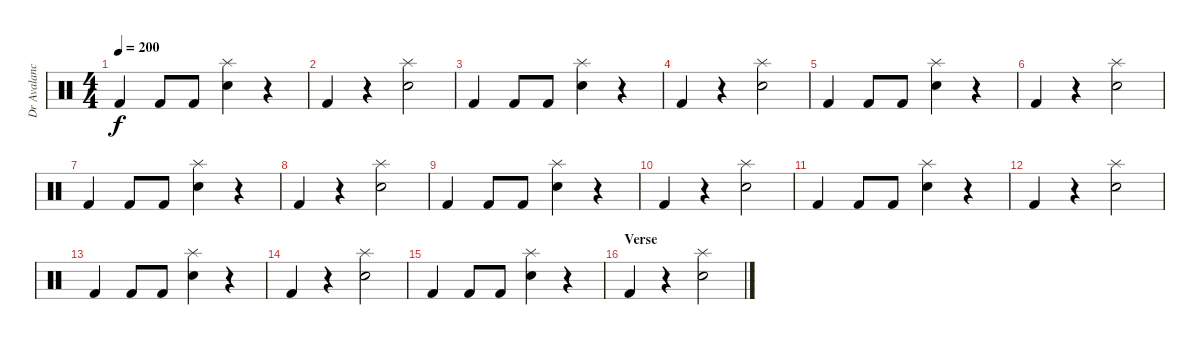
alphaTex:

\track ("Dr Avalanche" "Dr Avalanc") {instrument percussion}
\staff {score}
\articulation defaults
\ts (4 4)
\tempo 200
\clef neutral
\ks c "Kick (hit) 2".4{dy f} "Kick (hit) 2".8 "Kick (hit) 2".8
("Snare (hit) 2" "Splash (hit)").4 r.4 |
"Kick (hit) 2".4 r.4 ("Snare (hit) 2" "Splash (hit)").2 |
"Kick (hit) 2".4 "Kick (hit) 2".8 "Kick (hit) 2".8 ("Snare (hit) 2" "Splash (hit)").4 r.4 |
"Kick (hit) 2".4 r.4 ("Snare (hit) 2" "Splash (hit)").2 |
"Kick (hit) 2".4 "Kick (hit) 2".8 "Kick (hit) 2".8 ("Snare (hit) 2" "Splash (hit)").4 r.4 |
"Kick (hit) 2".4 r.4 ("Snare (hit) 2" "Splash (hit)").2 |
"Kick (hit) 2".4 "Kick (hit) 2".8 "Kick (hit) 2".8 ("Snare (hit) 2" "Splash (hit)").4 r.4 |
"Kick (hit) 2".4 r.4 ("Snare (hit) 2" "Splash (hit)").2 |
"Kick (hit) 2".4 "Kick (hit) 2".8 "Kick (hit) 2".8 ("Snare (hit) 2" "Splash (hit)").4 r.4 |
"Kick (hit) 2".4 r.4 ("Snare (hit) 2" "Splash (hit)").2 |
"Kick (hit) 2".4 "Kick (hit) 2".8 "Kick (hit) 2".8 ("Snare (hit) 2" "Splash (hit)").4 r.4 |
"Kick (hit) 2".4 r.4 ("Snare (hit) 2" "Splash (hit)").2 |
"Kick (hit) 2".4 "Kick (hit) 2".8 "Kick (hit) 2".8 ("Snare (hit) 2" "Splash (hit)").4 r.4 |
"Kick (hit) 2".4 r.4 ("Snare (hit) 2" "Splash (hit)").2 |
"Kick (hit) 2".4 "Kick (hit) 2".8 "Kick (hit) 2".8 ("Snare (hit) 2" "Splash (hit)").4 r.4 |
\section ("" "Verse")
"Kick (hit) 2".4 r.4 ("Snare (hit) 2" "Splash (hit)").2
